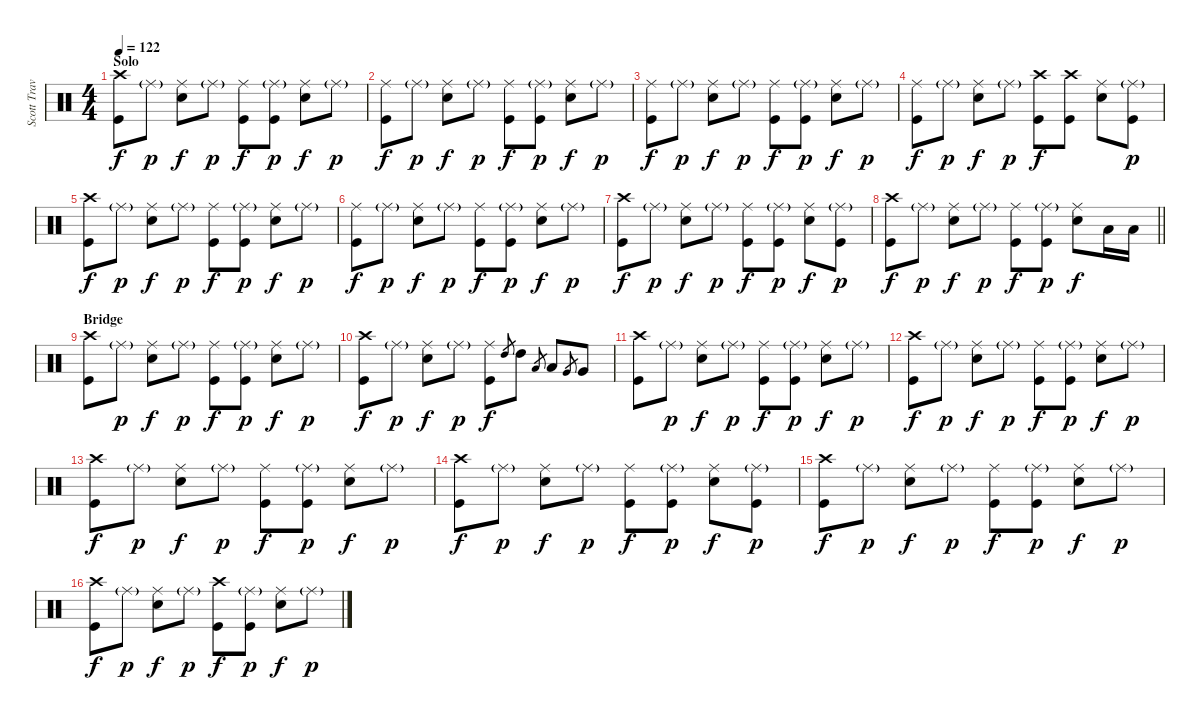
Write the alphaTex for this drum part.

\track ("Scott Travis" "Scott Trav") {instrument percussion}
\staff {score}
\articulation defaults
\ts (4 4)
\section ("" "Solo")
\tempo 122
\clef neutral
\ks c
("Crash high (hit)" "Kick (hit)").8{dy f} "Ride (middle)"{g}.8{dy p} ("Ride (middle)" "Snare (hit) 2").8{dy f} "Ride (middle)"{g}.8{dy p} ("Ride (middle)" "Kick (hit)").8{dy f} ("Ride (middle)"{g} "Kick (hit)").8{dy p} ("Ride (middle)" "Snare (hit) 2").8{dy f} "Ride (middle)"{g}.8{dy p} |
("Ride (middle)" "Kick (hit)").8{dy f} "Ride (middle)"{g}.8{dy p} ("Ride (middle)" "Snare (hit) 2").8{dy f} "Ride (middle)"{g}.8{dy p} ("Ride (middle)" "Kick (hit)").8{dy f} ("Ride (middle)"{g} "Kick (hit)").8{dy p} ("Ride (middle)" "Snare (hit) 2").8{dy f} "Ride (middle)"{g}.8{dy p} |
("Ride (middle)" "Kick (hit)").8{dy f} "Ride (middle)"{g}.8{dy p} ("Ride (middle)" "Snare (hit) 2").8{dy f} "Ride (middle)"{g}.8{dy p} ("Ride (middle)" "Kick (hit)").8{dy f} ("Ride (middle)"{g} "Kick (hit)").8{dy p} ("Ride (middle)" "Snare (hit) 2").8{dy f} "Ride (middle)"{g}.8{dy p} |
("Ride (middle)" "Kick (hit)").8{dy f} "Ride (middle)"{g}.8{dy p} ("Ride (middle)" "Snare (hit) 2").8{dy f} "Ride (middle)"{g}.8{dy p} ("Crash high (hit)" "Kick (hit)").8{dy f} ("Crash high (hit)" "Kick (hit)").8 ("Ride (middle)" "Snare (hit) 2").8 ("Ride (middle)"{g} "Kick (hit)").8{dy p} |
("Crash high (hit)" "Kick (hit)").8{dy f} "Ride (middle)"{g}.8{dy p} ("Ride (middle)" "Snare (hit) 2").8{dy f} "Ride (middle)"{g}.8{dy p} ("Ride (middle)" "Kick (hit)").8{dy f} ("Ride (middle)"{g} "Kick (hit)").8{dy p} ("Ride (middle)" "Snare (hit) 2").8{dy f} "Ride (middle)"{g}.8{dy p} |
("Ride (middle)" "Kick (hit)").8{dy f} "Ride (middle)"{g}.8{dy p} ("Ride (middle)" "Snare (hit) 2").8{dy f} "Ride (middle)"{g}.8{dy p} ("Ride (middle)" "Kick (hit)").8{dy f} ("Ride (middle)"{g} "Kick (hit)").8{dy p} ("Ride (middle)" "Snare (hit) 2").8{dy f} "Ride (middle)"{g}.8{dy p} |
("Crash high (hit)" "Kick (hit)").8{dy f} "Ride (middle)"{g}.8{dy p} ("Ride (middle)" "Snare (hit) 2").8{dy f} "Ride (middle)"{g}.8{dy p} ("Ride (middle)" "Kick (hit)").8{dy f} ("Ride (middle)"{g} "Kick (hit)").8{dy p} ("Ride (middle)" "Snare (hit) 2").8{dy f} ("Ride (middle)"{g} "Kick (hit)").8{dy p} |
\barLineRight lightlight
("Crash high (hit)" "Kick (hit)").8{dy f} "Ride (middle)"{g}.8{dy p} ("Ride (middle)" "Snare (hit) 2").8{dy f} "Ride (middle)"{g}.8{dy p} ("Ride (middle)" "Kick (hit)").8{dy f} ("Ride (middle)"{g} "Kick (hit)").8{dy p} ("Ride (middle)" "Snare (hit) 2").8{dy f} "Low Tom (hit)".16 "Low Tom (hit)".16 |
\section ("" "Bridge")
("Crash high (hit)" "Kick (hit)").8 "Ride (middle)"{g}.8{dy p} ("Ride (middle)" "Snare (hit) 2").8{dy f} "Ride (middle)"{g}.8{dy p} ("Ride (middle)" "Kick (hit)").8{dy f} ("Ride (middle)"{g} "Kick (hit)").8{dy p} ("Ride (middle)" "Snare (hit) 2").8{dy f} "Ride (middle)"{g}.8{dy p} |
("Crash high (hit)" "Kick (hit)").8{dy f} "Ride (middle)"{g}.8{dy p} ("Ride (middle)" "Snare (hit) 2").8{dy f} "Ride (middle)"{g}.8{dy p} ("Ride (middle)" "Kick (hit)").8{dy f} "High Tom (hit)".8{gr} "High Tom (hit)".8 "Low Tom (hit)".8{gr} "Low Tom (hit)".8 "Very Low Tom (hit)".8{gr} "Very Low Tom (hit)".8 |
("Crash high (hit)" "Kick (hit)").8 "Ride (middle)"{g}.8{dy p} ("Ride (middle)" "Snare (hit) 2").8{dy f} "Ride (middle)"{g}.8{dy p} ("Ride (middle)" "Kick (hit)").8{dy f} ("Ride (middle)"{g} "Kick (hit)").8{dy p} ("Ride (middle)" "Snare (hit) 2").8{dy f} "Ride (middle)"{g}.8{dy p} |
("Crash high (hit)" "Kick (hit)").8{dy f} "Ride (middle)"{g}.8{dy p} ("Ride (middle)" "Snare (hit) 2").8{dy f} "Ride (middle)"{g}.8{dy p} ("Ride (middle)" "Kick (hit)").8{dy f} ("Ride (middle)"{g} "Kick (hit)").8{dy p} ("Ride (middle)" "Snare (hit) 2").8{dy f} "Ride (middle)"{g}.8{dy p} |
("Crash high (hit)" "Kick (hit)").8{dy f} "Ride (middle)"{g}.8{dy p} ("Ride (middle)" "Snare (hit) 2").8{dy f} "Ride (middle)"{g}.8{dy p} ("Ride (middle)" "Kick (hit)").8{dy f} ("Ride (middle)"{g} "Kick (hit)").8{dy p} ("Ride (middle)" "Snare (hit) 2").8{dy f} "Ride (middle)"{g}.8{dy p} |
("Crash high (hit)" "Kick (hit)").8{dy f} "Ride (middle)"{g}.8{dy p} ("Ride (middle)" "Snare (hit) 2").8{dy f} "Ride (middle)"{g}.8{dy p} ("Ride (middle)" "Kick (hit)").8{dy f} ("Ride (middle)"{g} "Kick (hit)").8{dy p} ("Ride (middle)" "Snare (hit) 2").8{dy f} ("Ride (middle)"{g} "Kick (hit)").8{dy p} |
("Crash high (hit)" "Kick (hit)").8{dy f} "Ride (middle)"{g}.8{dy p} ("Ride (middle)" "Snare (hit) 2").8{dy f} "Ride (middle)"{g}.8{dy p} ("Ride (middle)" "Kick (hit)").8{dy f} ("Ride (middle)"{g} "Kick (hit)").8{dy p} ("Ride (middle)" "Snare (hit) 2").8{dy f} "Ride (middle)"{g}.8{dy p} |
("Crash high (hit)" "Kick (hit)").8{dy f} "Ride (middle)"{g}.8{dy p} ("Ride (middle)" "Snare (hit) 2").8{dy f} "Ride (middle)"{g}.8{dy p} ("Crash high (hit)" "Kick (hit)").8{dy f} ("Ride (middle)"{g} "Kick (hit)").8{dy p} ("Ride (middle)" "Snare (hit) 2").8{dy f} "Ride (middle)"{g}.8{dy p}
